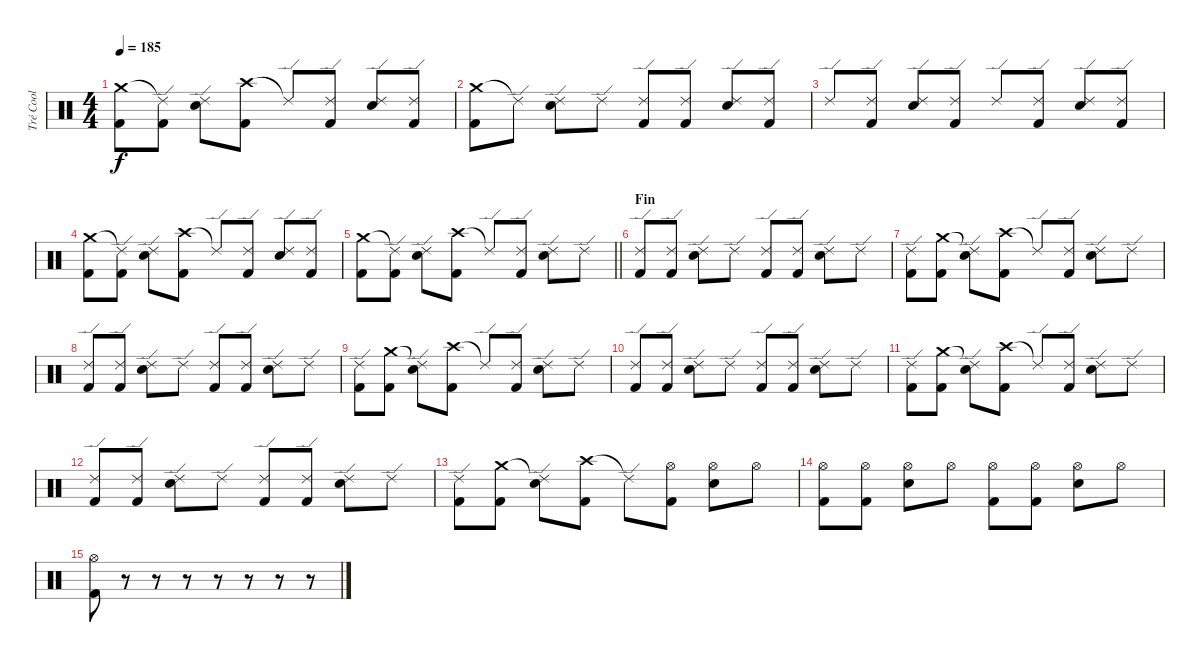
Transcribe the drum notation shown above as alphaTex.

\track ("Tré Cool" "Tré Cool") {instrument percussion}
\staff {score}
\articulation defaults
\ts (4 4)
\tempo 185
\clef neutral
\ks c
("Crash medium (hit)" "Kick (hit) 2").8{dy f} ("Ride (edge) 2"{t} "Kick (hit) 2").8 ("Ride (edge) 2" "Electric Snare (hit)").8 ("Crash high (hit)" "Kick (hit) 2").8 "Ride (edge) 2"{t}.8 ("Ride (edge) 2" "Kick (hit) 2").8 ("Ride (edge) 2" "Electric Snare (hit)").8 ("Ride (edge) 2" "Kick (hit) 2").8 |
("Crash medium (hit)" "Kick (hit) 2").8 "Ride (edge) 2"{t}.8 ("Ride (edge) 2" "Electric Snare (hit)").8 "Ride (edge) 2".8 ("Ride (edge) 2" "Kick (hit) 2").8 ("Ride (edge) 2" "Kick (hit) 2").8 ("Ride (edge) 2" "Electric Snare (hit)").8 ("Ride (edge) 2" "Kick (hit) 2").8 |
"Ride (edge) 2".8 ("Ride (edge) 2" "Kick (hit) 2").8 ("Ride (edge) 2" "Electric Snare (hit)").8 ("Ride (edge) 2" "Kick (hit) 2").8 "Ride (edge) 2".8 ("Ride (edge) 2" "Kick (hit) 2").8 ("Ride (edge) 2" "Electric Snare (hit)").8 ("Ride (edge) 2" "Kick (hit) 2").8 |
("Crash medium (hit)" "Kick (hit) 2").8 ("Ride (edge) 2"{t} "Kick (hit) 2").8 ("Ride (edge) 2" "Electric Snare (hit)").8 ("Crash high (hit)" "Kick (hit) 2").8 "Ride (edge) 2"{t}.8 ("Ride (edge) 2" "Kick (hit) 2").8 ("Ride (edge) 2" "Electric Snare (hit)").8 ("Ride (edge) 2" "Kick (hit) 2").8 |
\barLineRight lightlight
("Crash medium (hit)" "Kick (hit) 2").8 ("Ride (edge) 2"{t} "Kick (hit) 2").8 ("Ride (edge) 2" "Electric Snare (hit)").8 ("Crash high (hit)" "Kick (hit) 2").8 "Ride (edge) 2"{t}.8 ("Ride (edge) 2" "Kick (hit) 2").8 ("Ride (edge) 2" "Electric Snare (hit)").8 "Ride (edge) 2".8 |
\section ("" "Fin")
("Ride (edge) 2" "Kick (hit) 2").8 ("Ride (edge) 2" "Kick (hit) 2").8 ("Ride (edge) 2" "Electric Snare (hit)").8 "Ride (edge) 2".8 ("Ride (edge) 2" "Kick (hit) 2").8 ("Ride (edge) 2" "Kick (hit) 2").8 ("Ride (edge) 2" "Electric Snare (hit)").8 "Ride (edge) 2".8 |
("Ride (edge) 2" "Kick (hit) 2").8 ("Crash medium (hit)" "Kick (hit) 2").8 ("Ride (edge) 2"{t} "Electric Snare (hit)").8 ("Crash high (hit)" "Kick (hit) 2").8 "Ride (edge) 2"{t}.8 ("Ride (edge) 2" "Kick (hit) 2").8 ("Ride (edge) 2" "Electric Snare (hit)").8 "Ride (edge) 2".8 |
("Ride (edge) 2" "Kick (hit) 2").8 ("Ride (edge) 2" "Kick (hit) 2").8 ("Ride (edge) 2" "Electric Snare (hit)").8 "Ride (edge) 2".8 ("Ride (edge) 2" "Kick (hit) 2").8 ("Ride (edge) 2" "Kick (hit) 2").8 ("Ride (edge) 2" "Electric Snare (hit)").8 "Ride (edge) 2".8 |
("Ride (edge) 2" "Kick (hit) 2").8 ("Crash medium (hit)" "Kick (hit) 2").8 ("Ride (edge) 2"{t} "Electric Snare (hit)").8 ("Crash high (hit)" "Kick (hit) 2").8 "Ride (edge) 2"{t}.8 ("Ride (edge) 2" "Kick (hit) 2").8 ("Ride (edge) 2" "Electric Snare (hit)").8 "Ride (edge) 2".8 |
("Ride (edge) 2" "Kick (hit) 2").8 ("Ride (edge) 2" "Kick (hit) 2").8 ("Ride (edge) 2" "Electric Snare (hit)").8 "Ride (edge) 2".8 ("Ride (edge) 2" "Kick (hit) 2").8 ("Ride (edge) 2" "Kick (hit) 2").8 ("Ride (edge) 2" "Electric Snare (hit)").8 "Ride (edge) 2".8 |
("Ride (edge) 2" "Kick (hit) 2").8 ("Crash medium (hit)" "Kick (hit) 2").8 ("Ride (edge) 2"{t} "Electric Snare (hit)").8 ("Crash high (hit)" "Kick (hit) 2").8 "Ride (edge) 2"{t}.8 ("Ride (edge) 2" "Kick (hit) 2").8 ("Ride (edge) 2" "Electric Snare (hit)").8 "Ride (edge) 2".8 |
("Ride (edge) 2" "Kick (hit) 2").8 ("Ride (edge) 2" "Kick (hit) 2").8 ("Ride (edge) 2" "Electric Snare (hit)").8 "Ride (edge) 2".8 ("Ride (edge) 2" "Kick (hit) 2").8 ("Ride (edge) 2" "Kick (hit) 2").8 ("Ride (edge) 2" "Electric Snare (hit)").8 "Ride (edge) 2".8 |
("Ride (edge) 2" "Kick (hit) 2").8 ("Crash medium (hit)" "Kick (hit) 2").8 ("Ride (edge) 2"{t} "Electric Snare (hit)").8 ("Crash high (hit)" "Kick (hit) 2").8 "Ride (edge) 2"{t}.8 ("Hi-Hat (open)" "Kick (hit) 2").8 ("Hi-Hat (open)" "Electric Snare (hit)").8 "Hi-Hat (open)".8 |
("Hi-Hat (open)" "Kick (hit) 2").8 ("Hi-Hat (open)" "Kick (hit) 2").8 ("Hi-Hat (open)" "Electric Snare (hit)").8 "Hi-Hat (open)".8 ("Hi-Hat (open)" "Kick (hit) 2").8 ("Hi-Hat (open)" "Kick (hit) 2").8 ("Hi-Hat (open)" "Electric Snare (hit)").8 "Hi-Hat (open)".8 |
("Hi-Hat (open)" "Kick (hit) 2").8 r.8 r.8 r.8 r.8 r.8 r.8 r.8
